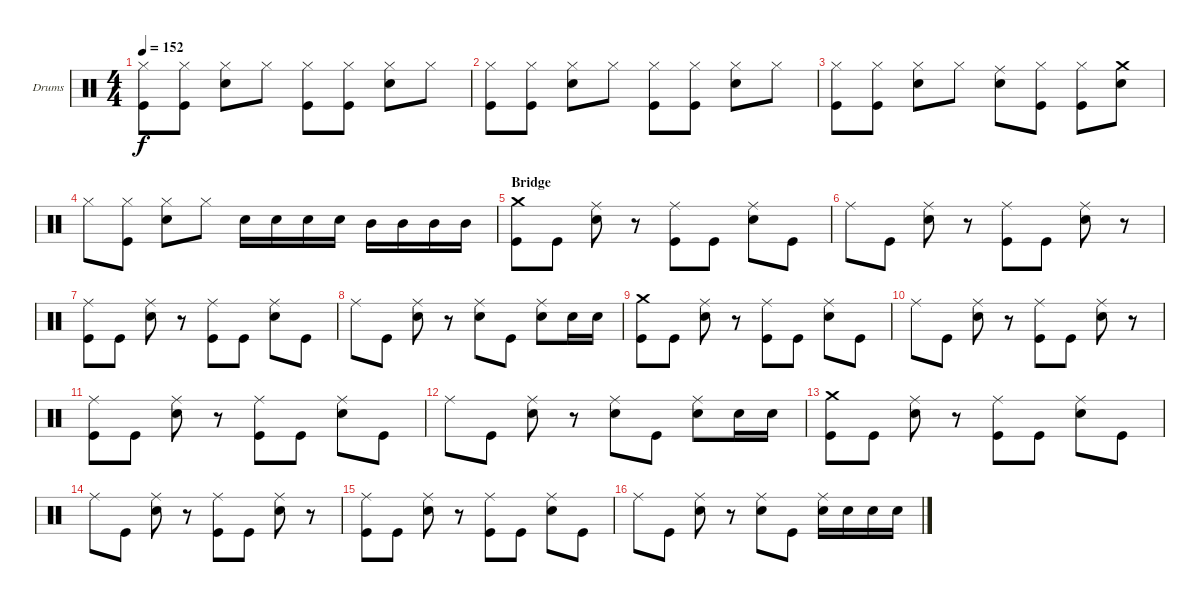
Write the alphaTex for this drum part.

\bracketExtendMode groupsimilarinstruments
\firstSystemTrackNameOrientation horizontal
\otherSystemsTrackNameOrientation horizontal
\track ("Drumkit" "Drums") {instrument percussion}
\staff {score}
\articulation defaults
\ts (4 4)
\tempo 152
\clef neutral
\ks c
("Hi-Hat (closed)" "Kick (hit)").8{dy f} ("Hi-Hat (closed)" "Kick (hit)").8 ("Snare (hit) 2" "Hi-Hat (closed)").8 "Hi-Hat (closed)".8 ("Kick (hit)" "Hi-Hat (closed)").8 ("Kick (hit)" "Hi-Hat (closed)").8 ("Snare (hit) 2" "Hi-Hat (closed)").8 "Hi-Hat (closed)".8 |
("Hi-Hat (closed)" "Kick (hit)").8 ("Hi-Hat (closed)" "Kick (hit)").8 ("Snare (hit) 2" "Hi-Hat (closed)").8 "Hi-Hat (closed)".8 ("Kick (hit)" "Hi-Hat (closed)").8 ("Kick (hit)" "Hi-Hat (closed)").8 ("Snare (hit) 2" "Hi-Hat (closed)").8 "Hi-Hat (closed)".8 |
("Hi-Hat (closed)" "Kick (hit)").8 ("Hi-Hat (closed)" "Kick (hit)").8 ("Snare (hit) 2" "Hi-Hat (closed)").8 "Hi-Hat (closed)".8 ("Snare (hit) 2" "Ride (middle)").8 ("Kick (hit)" "Hi-Hat (closed)").8 ("Kick (hit)" "Hi-Hat (closed)").8 ("Snare (hit) 2" "Crash medium (hit)").8 |
"Hi-Hat (closed)".8 ("Hi-Hat (closed)" "Kick (hit)").8 ("Snare (hit) 2" "Hi-Hat (closed)").8 "Hi-Hat (closed)".8 "Snare (hit) 2".16 "Snare (hit) 2".16 "Snare (hit) 2".16 "Snare (hit) 2".16 "Mid Tom (hit)".16 "Mid Tom (hit)".16 "Mid Tom (hit)".16 "Mid Tom (hit)".16 |
\section ("" "Bridge")
("Kick (hit)" "Crash medium (hit)").8 "Kick (hit)".8 ("Snare (hit) 2" "Ride (middle)").8 r.8 ("Kick (hit)" "Ride (middle)").8 "Kick (hit)".8 ("Snare (hit) 2" "Ride (middle)").8 "Kick (hit)".8 |
"Ride (middle)".8 "Kick (hit)".8 ("Snare (hit) 2" "Ride (middle)").8 r.8 ("Kick (hit)" "Ride (middle)").8 "Kick (hit)".8 ("Snare (hit) 2" "Ride (middle)").8 r.8 |
("Kick (hit)" "Ride (middle)").8 "Kick (hit)".8 ("Snare (hit) 2" "Ride (middle)").8 r.8 ("Kick (hit)" "Ride (middle)").8 "Kick (hit)".8 ("Snare (hit) 2" "Ride (middle)").8 "Kick (hit)".8 |
"Ride (middle)".8 "Kick (hit)".8 ("Snare (hit) 2" "Ride (middle)").8 r.8 ("Ride (middle)" "Snare (hit) 2").8 "Kick (hit)".8 ("Ride (middle)" "Snare (hit) 2").8 "Snare (hit) 2".16 "Snare (hit) 2".16 |
("Kick (hit)" "Crash medium (hit)").8 "Kick (hit)".8 ("Snare (hit) 2" "Ride (middle)").8 r.8 ("Kick (hit)" "Ride (middle)").8 "Kick (hit)".8 ("Snare (hit) 2" "Ride (middle)").8 "Kick (hit)".8 |
"Ride (middle)".8 "Kick (hit)".8 ("Snare (hit) 2" "Ride (middle)").8 r.8 ("Kick (hit)" "Ride (middle)").8 "Kick (hit)".8 ("Snare (hit) 2" "Ride (middle)").8 r.8 |
("Kick (hit)" "Ride (middle)").8 "Kick (hit)".8 ("Snare (hit) 2" "Ride (middle)").8 r.8 ("Kick (hit)" "Ride (middle)").8 "Kick (hit)".8 ("Snare (hit) 2" "Ride (middle)").8 "Kick (hit)".8 |
"Ride (middle)".8 "Kick (hit)".8 ("Snare (hit) 2" "Ride (middle)").8 r.8 ("Ride (middle)" "Snare (hit) 2").8 "Kick (hit)".8 ("Ride (middle)" "Snare (hit) 2").8 "Snare (hit) 2".16 "Snare (hit) 2".16 |
("Kick (hit)" "Crash medium (hit)").8 "Kick (hit)".8 ("Snare (hit) 2" "Ride (middle)").8 r.8 ("Kick (hit)" "Ride (middle)").8 "Kick (hit)".8 ("Snare (hit) 2" "Ride (middle)").8 "Kick (hit)".8 |
"Ride (middle)".8 "Kick (hit)".8 ("Snare (hit) 2" "Ride (middle)").8 r.8 ("Kick (hit)" "Ride (middle)").8 "Kick (hit)".8 ("Snare (hit) 2" "Ride (middle)").8 r.8 |
("Kick (hit)" "Ride (middle)").8 "Kick (hit)".8 ("Snare (hit) 2" "Ride (middle)").8 r.8 ("Kick (hit)" "Ride (middle)").8 "Kick (hit)".8 ("Snare (hit) 2" "Ride (middle)").8 "Kick (hit)".8 |
"Ride (middle)".8 "Kick (hit)".8 ("Snare (hit) 2" "Ride (middle)").8 r.8 ("Ride (middle)" "Snare (hit) 2").8 "Kick (hit)".8 ("Ride (middle)" "Snare (hit) 2").16 "Snare (hit) 2".16 "Snare (hit) 2".16 "Snare (hit) 2".16
